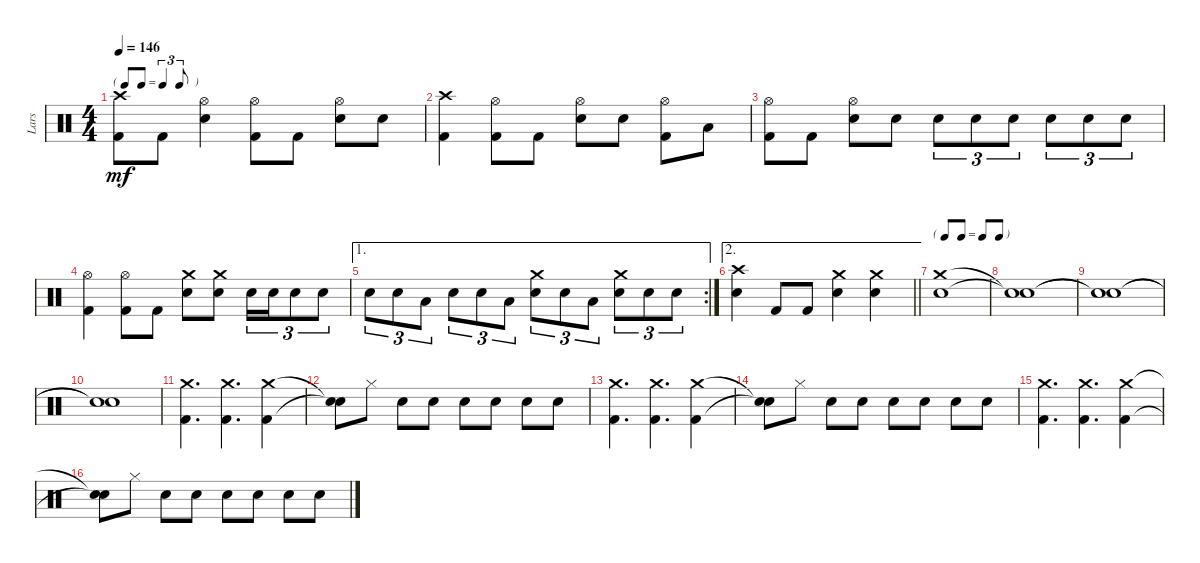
\track ("Lars" "Lars") {instrument percussion}
\staff {score}
\articulation defaults
\ts (4 4)
\tf triplet8th
\tempo 146
\clef neutral
\ks c
("Crash high (hit)" "Kick (hit) 2").8{dy mf} "Kick (hit) 2".8 ("Hi-Hat (open)" "Electric Snare (hit)").4 ("Hi-Hat (open)" "Kick (hit) 2").8 "Kick (hit) 2".8 ("Hi-Hat (open)" "Electric Snare (hit)").8 "Electric Snare (hit)".8 |
("Crash high (hit)" "Kick (hit) 2").4 ("Hi-Hat (open)" "Kick (hit) 2").8 "Kick (hit) 2".8 ("Hi-Hat (open)" "Electric Snare (hit)").8 "Electric Snare (hit)".8 ("Hi-Hat (open)" "Kick (hit) 2").8 "Low Tom (hit)".8 |
("Hi-Hat (open)" "Kick (hit) 2").8 "Kick (hit) 2".8 ("Hi-Hat (open)" "Electric Snare (hit)").8 "Electric Snare (hit)".8 "Electric Snare (hit)".8{tu (3 2)} "Electric Snare (hit)".8{tu (3 2)} "Electric Snare (hit)".8{tu (3 2)} "Electric Snare (hit)".8{tu (3 2)} "Electric Snare (hit)".8{tu (3 2)} "Electric Snare (hit)".8{tu (3 2)} |
("Hi-Hat (open)" "Kick (hit) 2").4 ("Hi-Hat (open)" "Kick (hit) 2").8 "Kick (hit) 2".8 ("Crash medium (hit)" "Electric Snare (hit)").8 ("Crash medium (hit)" "Electric Snare (hit)").8 "Electric Snare (hit)".16{tu (3 2)} "Electric Snare (hit)".16{tu (3 2)} "Electric Snare (hit)".8{tu (3 2)} "Electric Snare (hit)".8{tu (3 2)} |
\ae 1
\rc 2 "Electric Snare (hit)".8{tu (3 2)} "Electric Snare (hit)".8{tu (3 2)} "Low Tom (hit)".8{tu (3 2)} "Electric Snare (hit)".8{tu (3 2)} "Electric Snare (hit)".8{tu (3 2)} "Low Tom (hit)".8{tu (3 2)}
("Crash medium (hit)" "Electric Snare (hit)").8{tu (3 2)} "Electric Snare (hit)".8{tu (3 2)} "Low Tom (hit)".8{tu (3 2)} ("Crash medium (hit)" "Electric Snare (hit)").8{tu (3 2)} "Electric Snare (hit)".8{tu (3 2)} "Electric Snare (hit)".8{tu (3 2)} |
\ae 2
\barLineRight lightlight
("Crash high (hit)" "Electric Snare (hit)").4 "Kick (hit) 2".8 "Kick (hit) 2".8 ("Crash medium (hit)" "Electric Snare (hit)").4 ("Crash medium (hit)" "Electric Snare (hit)").4 |
\tf none
("Crash medium (hit)" "Electric Snare (hit)").1 |
("Snare (hit)"{t} "Snare (hit)"{t}).1 |
("Snare (hit)"{t} "Snare (hit)"{t}).1 |
("Snare (hit)"{t} "Snare (hit)"{t}).1 |
("Crash medium (hit)" "Kick (hit) 2").4{d} ("Crash medium (hit)" "Kick (hit) 2").4{d} ("Crash medium (hit)" "Kick (hit) 2").4 |
("Snare (hit)"{t} "Snare (hit)"{t}).8 "Hi-Hat (closed)".8 "Electric Snare (hit)".8 "Electric Snare (hit)".8 "Electric Snare (hit)".8 "Electric Snare (hit)".8 "Electric Snare (hit)".8 "Electric Snare (hit)".8 |
("Crash medium (hit)" "Kick (hit) 2").4{d} ("Crash medium (hit)" "Kick (hit) 2").4{d} ("Crash medium (hit)" "Kick (hit) 2").4 |
("Snare (hit)"{t} "Snare (hit)"{t}).8 "Hi-Hat (closed)".8 "Electric Snare (hit)".8 "Electric Snare (hit)".8 "Electric Snare (hit)".8 "Electric Snare (hit)".8 "Electric Snare (hit)".8 "Electric Snare (hit)".8 |
("Crash medium (hit)" "Kick (hit) 2").4{d} ("Crash medium (hit)" "Kick (hit) 2").4{d} ("Crash medium (hit)" "Kick (hit) 2").4 |
("Snare (hit)"{t} "Snare (hit)"{t}).8 "Hi-Hat (closed)".8 "Electric Snare (hit)".8 "Electric Snare (hit)".8 "Electric Snare (hit)".8 "Electric Snare (hit)".8 "Electric Snare (hit)".8 "Electric Snare (hit)".8
